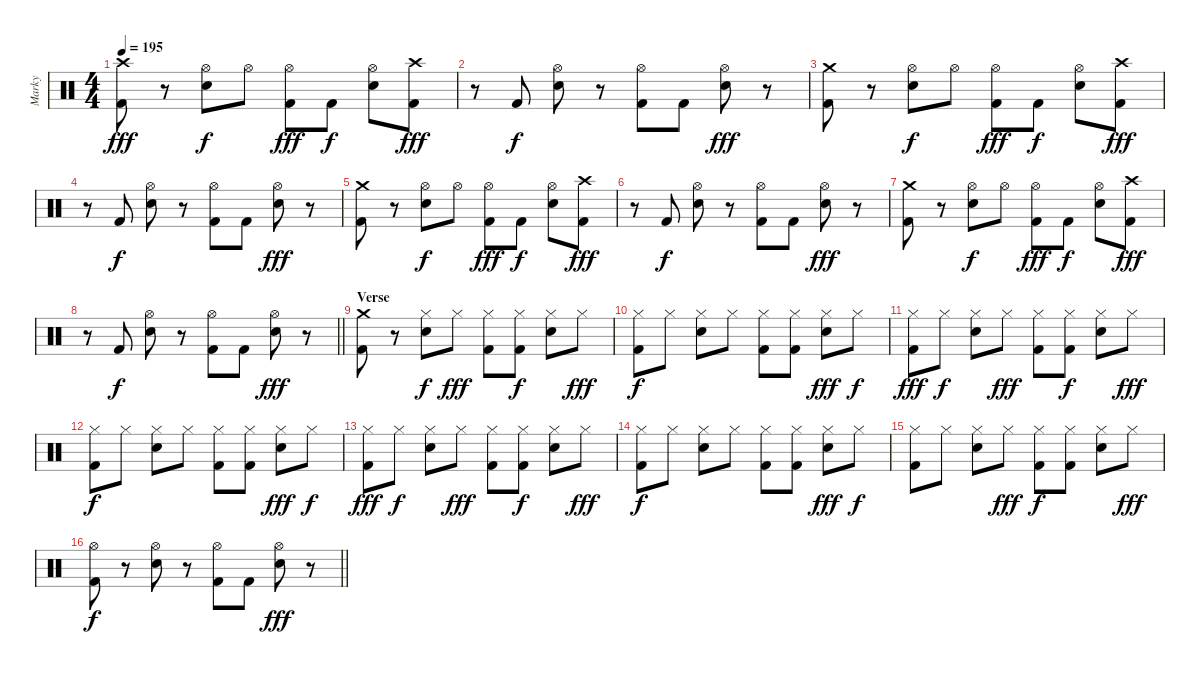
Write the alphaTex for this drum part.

\track ("Marky" "Marky") {instrument percussion}
\staff {score}
\articulation defaults
\ts (4 4)
\tempo 195
\clef neutral
\ks c
("Crash high (hit)" "Kick (hit) 2").8{dy fff} r.8 ("Hi-Hat (open)" "Electric Snare (hit)").8{dy f} "Hi-Hat (open)".8 ("Hi-Hat (open)" "Kick (hit) 2").8{dy fff} "Kick (hit) 2".8{dy f} ("Hi-Hat (open)" "Electric Snare (hit)").8 ("Crash high (hit)" "Kick (hit) 2").8{dy fff} |
r.8 "Kick (hit) 2".8{dy f} ("Hi-Hat (open)" "Electric Snare (hit)").8 r.8 ("Hi-Hat (open)" "Kick (hit) 2").8 "Kick (hit) 2".8 ("Hi-Hat (open)" "Electric Snare (hit)").8{dy fff} r.8 |
("Crash medium (hit)" "Kick (hit) 2").8 r.8 ("Hi-Hat (open)" "Electric Snare (hit)").8{dy f} "Hi-Hat (open)".8 ("Hi-Hat (open)" "Kick (hit) 2").8{dy fff} "Kick (hit) 2".8{dy f} ("Hi-Hat (open)" "Electric Snare (hit)").8 ("Crash high (hit)" "Kick (hit) 2").8{dy fff} |
r.8 "Kick (hit) 2".8{dy f} ("Hi-Hat (open)" "Electric Snare (hit)").8 r.8 ("Hi-Hat (open)" "Kick (hit) 2").8 "Kick (hit) 2".8 ("Hi-Hat (open)" "Electric Snare (hit)").8{dy fff} r.8 |
("Crash medium (hit)" "Kick (hit) 2").8 r.8 ("Hi-Hat (open)" "Electric Snare (hit)").8{dy f} "Hi-Hat (open)".8 ("Hi-Hat (open)" "Kick (hit) 2").8{dy fff} "Kick (hit) 2".8{dy f} ("Hi-Hat (open)" "Electric Snare (hit)").8 ("Crash high (hit)" "Kick (hit) 2").8{dy fff} |
r.8 "Kick (hit) 2".8{dy f} ("Hi-Hat (open)" "Electric Snare (hit)").8 r.8 ("Hi-Hat (open)" "Kick (hit) 2").8 "Kick (hit) 2".8 ("Hi-Hat (open)" "Electric Snare (hit)").8{dy fff} r.8 |
("Crash medium (hit)" "Kick (hit) 2").8 r.8 ("Hi-Hat (open)" "Electric Snare (hit)").8{dy f} "Hi-Hat (open)".8 ("Hi-Hat (open)" "Kick (hit) 2").8{dy fff} "Kick (hit) 2".8{dy f} ("Hi-Hat (open)" "Electric Snare (hit)").8 ("Crash high (hit)" "Kick (hit) 2").8{dy fff} |
\barLineRight lightlight
r.8 "Kick (hit) 2".8{dy f} ("Hi-Hat (open)" "Electric Snare (hit)").8 r.8 ("Hi-Hat (open)" "Kick (hit) 2").8 "Kick (hit) 2".8 ("Hi-Hat (open)" "Electric Snare (hit)").8{dy fff} r.8 |
\section ("" "Verse")
("Crash medium (hit)" "Kick (hit) 2").8 r.8 ("Hi-Hat (closed)" "Electric Snare (hit)").8{dy f} "Hi-Hat (closed)".8{dy fff} ("Hi-Hat (closed)" "Kick (hit) 2").8 ("Hi-Hat (closed)" "Kick (hit) 2").8{dy f} ("Hi-Hat (closed)" "Electric Snare (hit)").8 "Hi-Hat (closed)".8{dy fff} |
("Hi-Hat (closed)" "Kick (hit) 2").8{dy f} "Hi-Hat (closed)".8 ("Hi-Hat (closed)" "Electric Snare (hit)").8 "Hi-Hat (closed)".8 ("Hi-Hat (closed)" "Kick (hit) 2").8 ("Hi-Hat (closed)" "Kick (hit) 2").8 ("Hi-Hat (closed)" "Electric Snare (hit)").8{dy fff} "Hi-Hat (closed)".8{dy f} |
("Hi-Hat (closed)" "Kick (hit) 2").8{dy fff} "Hi-Hat (closed)".8{dy f} ("Hi-Hat (closed)" "Electric Snare (hit)").8 "Hi-Hat (closed)".8{dy fff} ("Hi-Hat (closed)" "Kick (hit) 2").8 ("Hi-Hat (closed)" "Kick (hit) 2").8{dy f} ("Hi-Hat (closed)" "Electric Snare (hit)").8 "Hi-Hat (closed)".8{dy fff} |
("Hi-Hat (closed)" "Kick (hit) 2").8{dy f} "Hi-Hat (closed)".8 ("Hi-Hat (closed)" "Electric Snare (hit)").8 "Hi-Hat (closed)".8 ("Hi-Hat (closed)" "Kick (hit) 2").8 ("Hi-Hat (closed)" "Kick (hit) 2").8 ("Hi-Hat (closed)" "Electric Snare (hit)").8{dy fff} "Hi-Hat (closed)".8{dy f} |
("Hi-Hat (closed)" "Kick (hit) 2").8{dy fff} "Hi-Hat (closed)".8{dy f} ("Hi-Hat (closed)" "Electric Snare (hit)").8 "Hi-Hat (closed)".8{dy fff} ("Hi-Hat (closed)" "Kick (hit) 2").8 ("Hi-Hat (closed)" "Kick (hit) 2").8{dy f} ("Hi-Hat (closed)" "Electric Snare (hit)").8 "Hi-Hat (closed)".8{dy fff} |
("Hi-Hat (closed)" "Kick (hit) 2").8{dy f} "Hi-Hat (closed)".8 ("Hi-Hat (closed)" "Electric Snare (hit)").8 "Hi-Hat (closed)".8 ("Hi-Hat (closed)" "Kick (hit) 2").8 ("Hi-Hat (closed)" "Kick (hit) 2").8 ("Hi-Hat (closed)" "Electric Snare (hit)").8{dy fff} "Hi-Hat (closed)".8{dy f} |
("Hi-Hat (closed)" "Kick (hit) 2").8 "Hi-Hat (closed)".8 ("Hi-Hat (closed)" "Electric Snare (hit)").8 "Hi-Hat (closed)".8{dy fff} ("Hi-Hat (closed)" "Kick (hit) 2").8{dy f} ("Hi-Hat (closed)" "Kick (hit) 2").8 ("Hi-Hat (closed)" "Electric Snare (hit)").8 "Hi-Hat (closed)".8{dy fff} |
\barLineRight lightlight
("Hi-Hat (open)" "Kick (hit) 2").8{dy f} r.8 ("Hi-Hat (open)" "Electric Snare (hit)").8 r.8 ("Hi-Hat (open)" "Kick (hit) 2").8 "Kick (hit) 2".8 ("Hi-Hat (open)" "Electric Snare (hit)").8{dy fff} r.8
